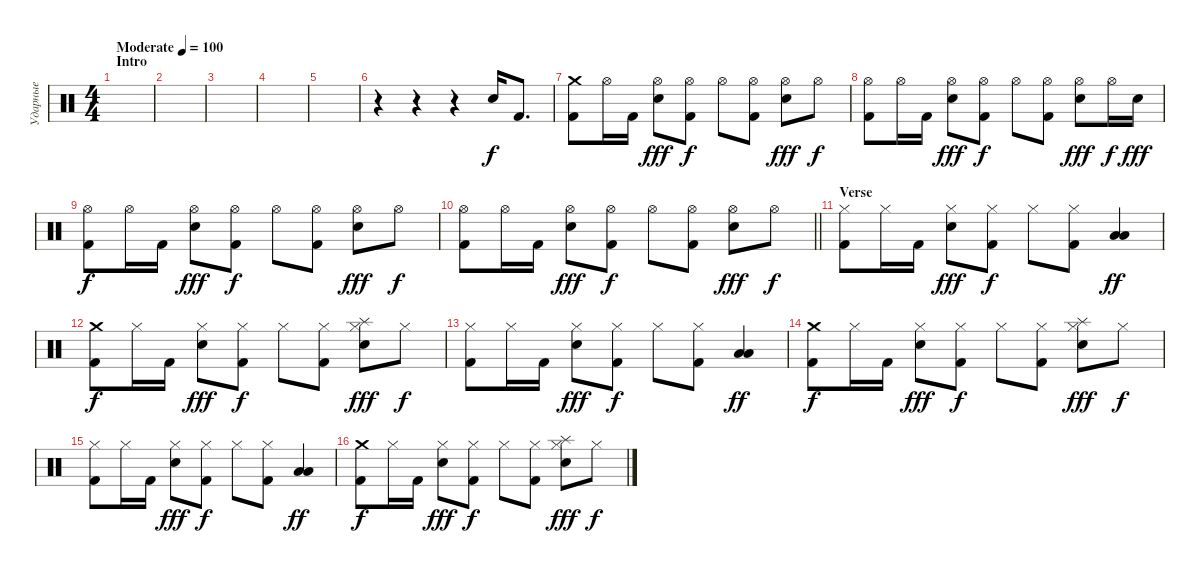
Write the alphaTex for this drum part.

\track ("Ударные" "Ударные") {instrument percussion}
\staff {score}
\articulation defaults
\ts (4 4)
\section ("" "Intro")
\tempo (100 "Moderate")
\clef neutral
\ks c
|
|
|
|
|
r.4 r.4 r.4 "Electric Snare (hit)".16 "Kick (hit) 2".8{d dy f} |
("Crash medium (hit)" "Kick (hit) 2").8 "Hi-Hat (open)".16 "Kick (hit) 2".16 ("Hi-Hat (open)" "Electric Snare (hit)").8{dy fff} ("Hi-Hat (open)" "Kick (hit) 2").8{dy f} "Hi-Hat (open)".8 ("Hi-Hat (open)" "Kick (hit) 2").8 ("Hi-Hat (open)" "Electric Snare (hit)").8{dy fff} "Hi-Hat (open)".8{dy f} |
("Hi-Hat (open)" "Kick (hit) 2").8 "Hi-Hat (open)".16 "Kick (hit) 2".16 ("Hi-Hat (open)" "Electric Snare (hit)").8{dy fff} ("Hi-Hat (open)" "Kick (hit) 2").8{dy f} "Hi-Hat (open)".8 ("Hi-Hat (open)" "Kick (hit) 2").8 ("Hi-Hat (open)" "Electric Snare (hit)").8{dy fff} "Hi-Hat (open)".16{dy f} "Electric Snare (hit)".16{dy fff} |
("Hi-Hat (open)" "Kick (hit) 2").8{dy f} "Hi-Hat (open)".16 "Kick (hit) 2".16 ("Hi-Hat (open)" "Electric Snare (hit)").8{dy fff} ("Hi-Hat (open)" "Kick (hit) 2").8{dy f} "Hi-Hat (open)".8 ("Hi-Hat (open)" "Kick (hit) 2").8 ("Hi-Hat (open)" "Electric Snare (hit)").8{dy fff} "Hi-Hat (open)".8{dy f} |
\barLineRight lightlight
("Hi-Hat (open)" "Kick (hit) 2").8 "Hi-Hat (open)".16 "Kick (hit) 2".16 ("Hi-Hat (open)" "Electric Snare (hit)").8{dy fff} ("Hi-Hat (open)" "Kick (hit) 2").8{dy f} "Hi-Hat (open)".8 ("Hi-Hat (open)" "Kick (hit) 2").8 ("Hi-Hat (open)" "Electric Snare (hit)").8{dy fff} "Hi-Hat (open)".8{dy f} |
\section ("" "Verse")
("Hi-Hat (closed)" "Kick (hit) 2").8 "Hi-Hat (closed)".16 "Kick (hit) 2".16 ("Hi-Hat (closed)" "Electric Snare (hit)").8{dy fff} ("Hi-Hat (closed)" "Kick (hit) 2").8{dy f} "Hi-Hat (closed)".8 ("Hi-Hat (closed)" "Kick (hit) 2").8 ("Low Floor Tom (hit)" "Low Floor Tom (hit)").4{dy ff} |
("Crash medium (hit)" "Kick (hit) 2").8{dy f} "Hi-Hat (closed)".16 "Kick (hit) 2".16 ("Hi-Hat (closed)" "Electric Snare (hit)").8{dy fff} ("Hi-Hat (closed)" "Kick (hit) 2").8{dy f} "Hi-Hat (closed)".8 ("Hi-Hat (closed)" "Kick (hit) 2").8 ("Splash (hit)" "Hi-Hat (closed)" "Electric Snare (hit)").8{dy fff} "Hi-Hat (closed)".8{dy f} |
("Hi-Hat (closed)" "Kick (hit) 2").8 "Hi-Hat (closed)".16 "Kick (hit) 2".16 ("Hi-Hat (closed)" "Electric Snare (hit)").8{dy fff} ("Hi-Hat (closed)" "Kick (hit) 2").8{dy f} "Hi-Hat (closed)".8 ("Hi-Hat (closed)" "Kick (hit) 2").8 ("Low Floor Tom (hit)" "Low Floor Tom (hit)").4{dy ff} |
("Crash medium (hit)" "Kick (hit) 2").8{dy f} "Hi-Hat (closed)".16 "Kick (hit) 2".16 ("Hi-Hat (closed)" "Electric Snare (hit)").8{dy fff} ("Hi-Hat (closed)" "Kick (hit) 2").8{dy f} "Hi-Hat (closed)".8 ("Hi-Hat (closed)" "Kick (hit) 2").8 ("Splash (hit)" "Hi-Hat (closed)" "Electric Snare (hit)").8{dy fff} "Hi-Hat (closed)".8{dy f} |
("Hi-Hat (closed)" "Kick (hit) 2").8 "Hi-Hat (closed)".16 "Kick (hit) 2".16 ("Hi-Hat (closed)" "Electric Snare (hit)").8{dy fff} ("Hi-Hat (closed)" "Kick (hit) 2").8{dy f} "Hi-Hat (closed)".8 ("Hi-Hat (closed)" "Kick (hit) 2").8 ("Low Floor Tom (hit)" "Low Floor Tom (hit)").4{dy ff} |
("Crash medium (hit)" "Kick (hit) 2").8{dy f} "Hi-Hat (closed)".16 "Kick (hit) 2".16 ("Hi-Hat (closed)" "Electric Snare (hit)").8{dy fff} ("Hi-Hat (closed)" "Kick (hit) 2").8{dy f} "Hi-Hat (closed)".8 ("Hi-Hat (closed)" "Kick (hit) 2").8 ("Splash (hit)" "Hi-Hat (closed)" "Electric Snare (hit)").8{dy fff} "Hi-Hat (closed)".8{dy f}
